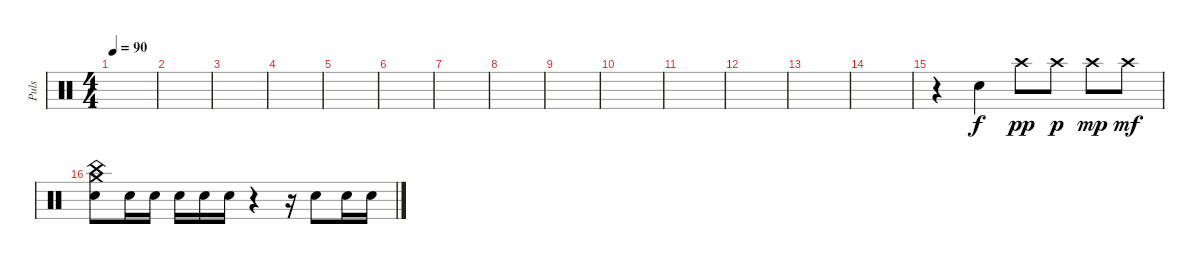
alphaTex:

\track ("Puls" "Puls") {instrument percussion}
\staff {score}
\articulation defaults
\ts (4 4)
\tempo 90
\clef neutral
\ks c
|
|
|
|
|
|
|
|
|
|
|
|
|
|
r.4 "Snare (hit) 2".4 "Crash high (hit)".8{dy pp} "Crash high (hit)".8{dy p} "Crash high (hit)".8{dy mp} "Crash high (hit)".8{dy mf} |
("Snare (hit) 2" "China (hit)" "Crash medium (hit)").8 "Snare (hit) 2".16 "Snare (hit) 2".16 "Snare (hit) 2".16 "Snare (hit) 2".16 "Snare (hit) 2".16 r.4 r.16 "Snare (hit) 2".8 "Snare (hit) 2".16 "Snare (hit) 2".16
